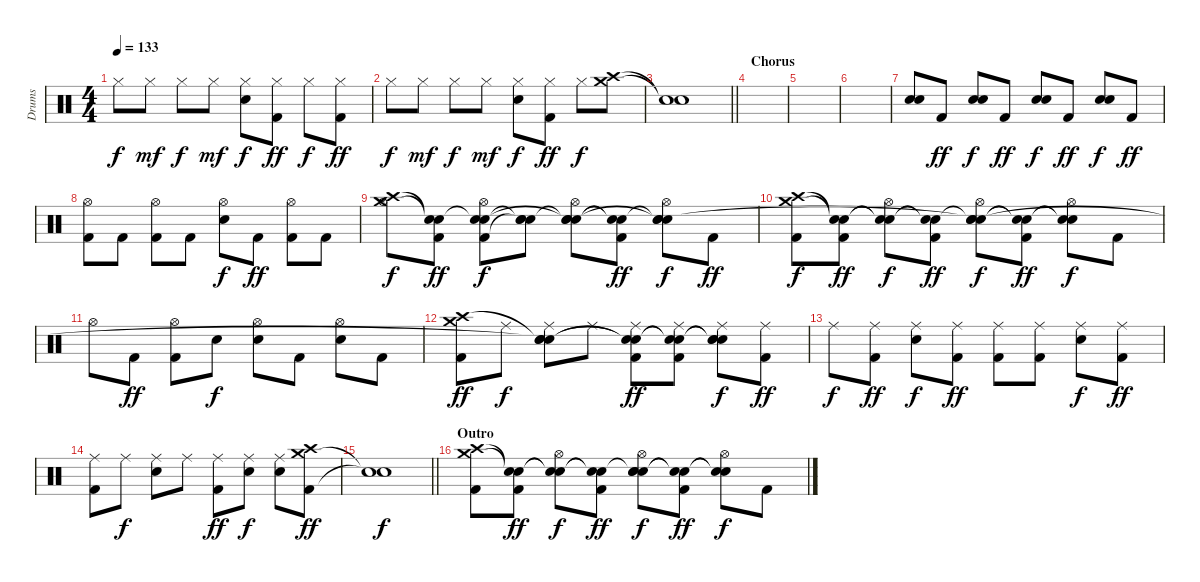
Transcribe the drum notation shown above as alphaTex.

\track ("Drums" "Drums") {instrument percussion}
\staff {score}
\articulation defaults
\ts (4 4)
\tempo 133
\clef neutral
\ks c "Hi-Hat (closed)".8{dy f} "Hi-Hat (closed)".8{dy mf} "Hi-Hat (closed)".8{dy f} "Hi-Hat (closed)".8{dy mf}
("Hi-Hat (closed)" "Snare (hit) 2").8{dy f} ("Hi-Hat (closed)" "Kick (hit) 2").8{dy ff} "Hi-Hat (closed)".8{dy f} ("Hi-Hat (closed)" "Kick (hit) 2").8{dy ff} |
"Hi-Hat (closed)".8{dy f} "Hi-Hat (closed)".8{dy mf} "Hi-Hat (closed)".8{dy f} "Hi-Hat (closed)".8{dy mf} ("Hi-Hat (closed)" "Snare (hit) 2").8{dy f} ("Hi-Hat (closed)" "Kick (hit) 2").8{dy ff} "Hi-Hat (closed)".8{dy f} ("Crash medium (hit)" "Crash high (hit)").8 |
\barLineRight lightlight
("Snare (hit)"{t} "Snare (hit)"{t}).1 |
\section ("" "Chorus")
|
|
|
("Snare (hit) 2" "Snare (hit) 2").8 "Kick (hit) 2".8{dy ff} ("Snare (hit) 2" "Snare (hit) 2").8{dy f} "Kick (hit) 2".8{dy ff} ("Snare (hit) 2" "Snare (hit) 2").8{dy f} "Kick (hit) 2".8{dy ff} ("Snare (hit) 2" "Snare (hit) 2").8{dy f} "Kick (hit) 2".8{dy ff} |
("Hi-Hat (open)" "Kick (hit) 2").8 "Kick (hit) 2".8 ("Hi-Hat (open)" "Kick (hit) 2").8 "Kick (hit) 2".8 ("Hi-Hat (open)" "Snare (hit) 2").8{dy f} "Kick (hit) 2".8{dy ff} ("Hi-Hat (open)" "Kick (hit) 2").8 "Kick (hit) 2".8 |
("Hi-Hat (open)" "Crash medium (hit)" "Crash high (hit)").8{dy f} ("Kick (hit) 2" "Snare (hit)"{t} "Snare (hit)"{t}).8{dy ff} ("Hi-Hat (open)" "Kick (hit) 2" "Snare (hit)"{t} "Snare (hit)").8{dy f} ("Snare (hit) 2" "Snare (hit)"{t} "Snare (hit)"{t}).8 ("Hi-Hat (open)" "Snare (hit) 2" "Snare (hit)"{t} "Snare (hit)"{t}).8 ("Kick (hit) 2" "Snare (hit)"{t} "Snare (hit)"{t}).8{dy ff} ("Hi-Hat (open)" "Snare (hit) 2" "Snare (hit)"{t} "Snare (hit)"{t}).8{dy f} "Kick (hit) 2".8{dy ff} |
("Kick (hit) 2" "Crash high (hit)" "Crash medium (hit)").8{dy f} ("Kick (hit) 2" "Snare (hit)"{t} "Snare (hit)"{t}).8{dy ff} ("Hi-Hat (open)" "Snare (hit)"{t} "Snare (hit)"{t}).8{dy f} ("Kick (hit) 2" "Snare (hit)"{t} "Snare (hit)"{t}).8{dy ff} ("Hi-Hat (open)" "Snare (hit) 2" "Snare (hit)"{t} "Snare (hit)"{t}).8{dy f} ("Kick (hit) 2" "Snare (hit)"{t} "Snare (hit)"{t}).8{dy ff} ("Hi-Hat (open)" "Snare (hit)"{t} "Snare (hit)"{t}).8{dy f} "Kick (hit) 2".8 |
"Hi-Hat (open)".8 "Kick (hit) 2".8{dy ff} ("Hi-Hat (open)" "Kick (hit) 2").8 "Snare (hit) 2".8{dy f} ("Hi-Hat (open)" "Snare (hit) 2").8 "Kick (hit) 2".8 ("Hi-Hat (open)" "Snare (hit) 2").8 "Kick (hit) 2".8 |
("Kick (hit) 2" "Crash medium (hit)" "Crash high (hit)").8{dy ff} "Ride (middle)".8{dy f} ("Ride (middle)" "Snare (hit) 2" "Snare (hit)"{t} "Snare (hit)"{t}).8 "Ride (middle)".8 ("Ride (middle)" "Kick (hit) 2" "Snare (hit)"{t} "Snare (hit)"{t}).8{dy ff} ("Ride (middle)" "Kick (hit) 2" "Snare (hit)"{t} "Snare (hit)"{t}).8 ("Ride (middle)" "Snare (hit) 2" "Snare (hit)"{t} "Snare (hit)"{t}).8{dy f} ("Ride (middle)" "Kick (hit) 2").8{dy ff} |
"Ride (middle)".8{dy f} ("Ride (middle)" "Kick (hit) 2").8{dy ff} ("Ride (middle)" "Snare (hit) 2").8{dy f} ("Ride (middle)" "Kick (hit) 2").8{dy ff} ("Ride (middle)" "Kick (hit) 2").8 ("Ride (middle)" "Kick (hit) 2").8 ("Ride (middle)" "Snare (hit) 2").8{dy f} ("Ride (middle)" "Kick (hit) 2").8{dy ff} |
("Ride (middle)" "Kick (hit) 2").8 "Ride (middle)".8{dy f} ("Ride (middle)" "Snare (hit) 2").8 "Ride (middle)".8 ("Ride (middle)" "Kick (hit) 2").8{dy ff} ("Ride (middle)" "Snare (hit) 2").8{dy f} ("Ride (middle)" "Snare (hit) 2").8 ("Kick (hit) 2" "Crash medium (hit)" "Crash high (hit)").8{dy ff} |
\barLineRight lightlight
("Snare (hit)"{t} "Snare (hit)"{t}).1{dy f} |
\section ("" "Outro")
("Kick (hit) 2" "Crash high (hit)" "Crash medium (hit)").8 ("Kick (hit) 2" "Snare (hit)"{t} "Snare (hit)"{t}).8{dy ff} ("Hi-Hat (open)" "Snare (hit)"{t} "Snare (hit)"{t}).8{dy f} ("Kick (hit) 2" "Snare (hit)"{t} "Snare (hit)"{t}).8{dy ff} ("Hi-Hat (open)" "Snare (hit) 2" "Snare (hit)"{t} "Snare (hit)").8{dy f} ("Kick (hit) 2" "Snare (hit)"{t} "Snare (hit)"{t}).8{dy ff} ("Hi-Hat (open)" "Snare (hit)"{t} "Snare (hit)"{t}).8{dy f} "Kick (hit) 2".8
